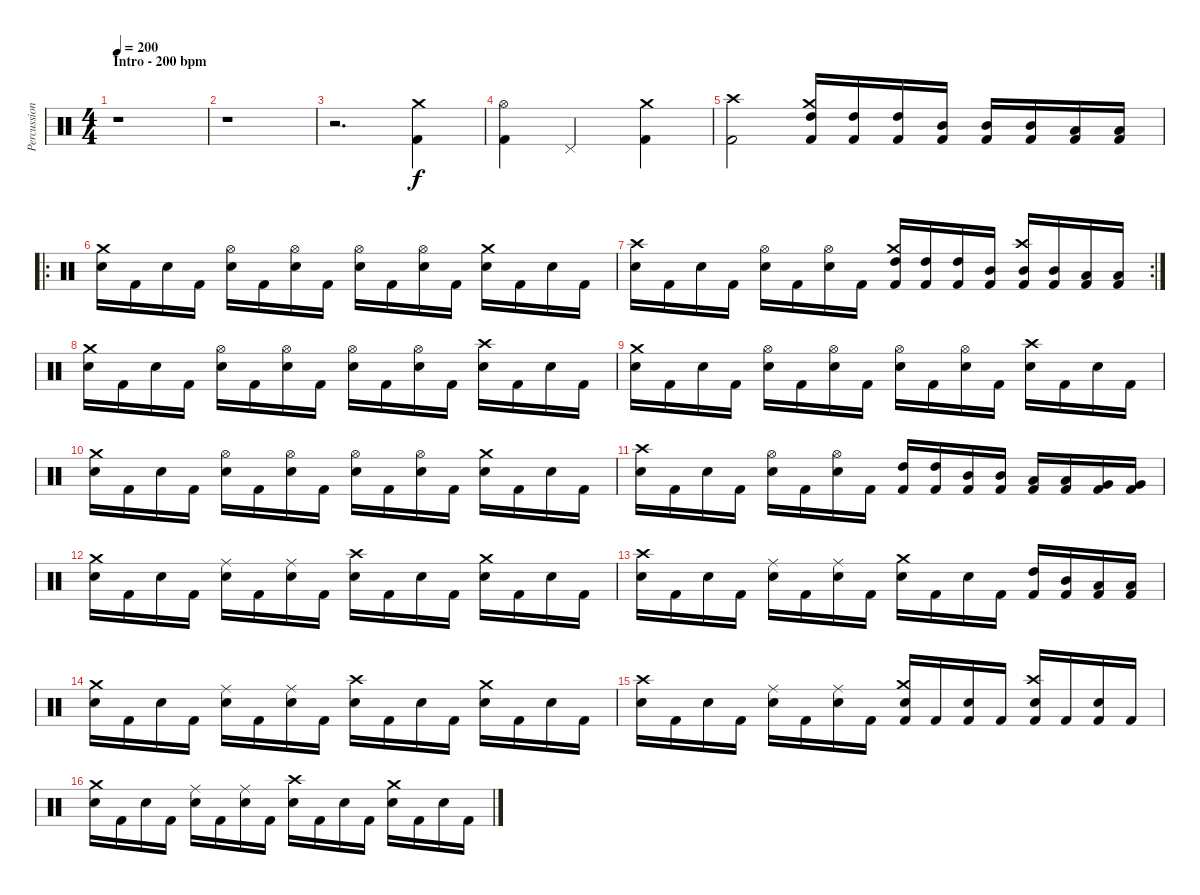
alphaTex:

\track ("Percussion" "Percussion") {instrument percussion}
\staff {score}
\articulation defaults
\ts (4 4)
\section ("" "Intro - 200 bpm")
\tempo 200
\clef neutral
\ks c
r.1{dy f} |
r.1 |
r.2{d} ("Kick (hit) 2" "Crash medium (hit)").4 |
("Kick (hit) 2" "Hi-Hat (open)").4 "Pedal Hi-Hat (hit)".2 ("Kick (hit) 2" "Crash medium (hit)").4 |
("Kick (hit) 2" "Crash high (hit)").2 ("Kick (hit) 2" "High Tom (hit)" "Crash medium (hit)").16 ("Kick (hit) 2" "High Tom (hit)").16 ("Kick (hit) 2" "High Tom (hit)").16 ("Kick (hit) 2" "Mid Tom (hit)").16 ("Kick (hit) 2" "Mid Tom (hit)").16 ("Kick (hit) 2" "Mid Tom (hit)").16 ("Kick (hit) 2" "Low Tom (hit)").16 ("Kick (hit) 2" "Low Tom (hit)").16 |
\ro
("Snare (hit) 2" "Crash medium (hit)").16 "Kick (hit) 2".16 "Snare (hit) 2".16 "Kick (hit) 2".16 ("Snare (hit) 2" "Hi-Hat (open)").16 "Kick (hit) 2".16 ("Snare (hit) 2" "Hi-Hat (open)").16 "Kick (hit) 2".16 ("Snare (hit) 2" "Hi-Hat (open)").16 "Kick (hit) 2".16 ("Snare (hit) 2" "Hi-Hat (open)").16 "Kick (hit) 2".16 ("Snare (hit) 2" "Crash medium (hit)").16 "Kick (hit) 2".16 "Snare (hit) 2".16 "Kick (hit) 2".16 |
\rc 2
("Snare (hit) 2" "Crash high (hit)").16 "Kick (hit) 2".16 "Snare (hit) 2".16 "Kick (hit) 2".16 ("Snare (hit) 2" "Hi-Hat (open)").16 "Kick (hit) 2".16 ("Snare (hit) 2" "Hi-Hat (open)").16 "Kick (hit) 2".16 ("Kick (hit) 2" "High Tom (hit)" "Crash medium (hit)").16 ("Kick (hit) 2" "High Tom (hit)").16 ("Kick (hit) 2" "High Tom (hit)").16 ("Kick (hit) 2" "Mid Tom (hit)").16 ("Kick (hit) 2" "Mid Tom (hit)" "Crash high (hit)").16 ("Kick (hit) 2" "Mid Tom (hit)").16 ("Kick (hit) 2" "Low Tom (hit)").16 ("Kick (hit) 2" "Low Tom (hit)").16 |
("Snare (hit) 2" "Crash medium (hit)").16 "Kick (hit) 2".16 "Snare (hit) 2".16 "Kick (hit) 2".16 ("Snare (hit) 2" "Hi-Hat (open)").16 "Kick (hit) 2".16 ("Snare (hit) 2" "Hi-Hat (open)").16 "Kick (hit) 2".16 ("Snare (hit) 2" "Hi-Hat (open)").16 "Kick (hit) 2".16 ("Snare (hit) 2" "Hi-Hat (open)").16 "Kick (hit) 2".16 ("Snare (hit) 2" "Crash high (hit)").16 "Kick (hit) 2".16 "Snare (hit) 2".16 "Kick (hit) 2".16 |
("Snare (hit) 2" "Crash medium (hit)").16 "Kick (hit) 2".16 "Snare (hit) 2".16 "Kick (hit) 2".16 ("Snare (hit) 2" "Hi-Hat (open)").16 "Kick (hit) 2".16 ("Snare (hit) 2" "Hi-Hat (open)").16 "Kick (hit) 2".16 ("Snare (hit) 2" "Hi-Hat (open)").16 "Kick (hit) 2".16 ("Snare (hit) 2" "Hi-Hat (open)").16 "Kick (hit) 2".16 ("Snare (hit) 2" "Crash high (hit)").16 "Kick (hit) 2".16 "Snare (hit) 2".16 "Kick (hit) 2".16 |
("Snare (hit) 2" "Crash medium (hit)").16 "Kick (hit) 2".16 "Snare (hit) 2".16 "Kick (hit) 2".16 ("Snare (hit) 2" "Hi-Hat (open)").16 "Kick (hit) 2".16 ("Snare (hit) 2" "Hi-Hat (open)").16 "Kick (hit) 2".16 ("Snare (hit) 2" "Hi-Hat (open)").16 "Kick (hit) 2".16 ("Snare (hit) 2" "Hi-Hat (open)").16 "Kick (hit) 2".16 ("Snare (hit) 2" "Crash medium (hit)").16 "Kick (hit) 2".16 "Snare (hit) 2".16 "Kick (hit) 2".16 |
("Snare (hit) 2" "Crash high (hit)").16 "Kick (hit) 2".16 "Snare (hit) 2".16 "Kick (hit) 2".16 ("Snare (hit) 2" "Hi-Hat (open)").16 "Kick (hit) 2".16 ("Snare (hit) 2" "Hi-Hat (open)").16 "Kick (hit) 2".16 ("Kick (hit) 2" "High Tom (hit)").16 ("Kick (hit) 2" "High Tom (hit)").16 ("Kick (hit) 2" "Mid Tom (hit)").16 ("Kick (hit) 2" "Mid Tom (hit)").16 ("Kick (hit) 2" "Low Tom (hit)").16 ("Kick (hit) 2" "Low Tom (hit)").16 ("Kick (hit) 2" "Very Low Tom (hit)").16 ("Kick (hit) 2" "Very Low Tom (hit)").16 |
("Snare (hit) 2" "Crash medium (hit)").16 "Kick (hit) 2".16 "Snare (hit) 2".16 "Kick (hit) 2".16 ("Snare (hit) 2" "Ride (middle)").16 "Kick (hit) 2".16 ("Snare (hit) 2" "Ride (middle)").16 "Kick (hit) 2".16 ("Snare (hit) 2" "Crash high (hit)").16 "Kick (hit) 2".16 "Snare (hit) 2".16 "Kick (hit) 2".16 ("Snare (hit) 2" "Crash medium (hit)").16 "Kick (hit) 2".16 "Snare (hit) 2".16 "Kick (hit) 2".16 |
("Snare (hit) 2" "Crash high (hit)").16 "Kick (hit) 2".16 "Snare (hit) 2".16 "Kick (hit) 2".16 ("Snare (hit) 2" "Ride (middle)").16 "Kick (hit) 2".16 ("Snare (hit) 2" "Ride (middle)").16 "Kick (hit) 2".16 ("Snare (hit) 2" "Crash medium (hit)").16 "Kick (hit) 2".16 "Snare (hit) 2".16 "Kick (hit) 2".16 ("Kick (hit) 2" "High Tom (hit)").16 ("Kick (hit) 2" "Mid Tom (hit)").16 ("Kick (hit) 2" "Low Tom (hit)").16 ("Kick (hit) 2" "Low Tom (hit)").16 |
("Snare (hit) 2" "Crash medium (hit)").16 "Kick (hit) 2".16 "Snare (hit) 2".16 "Kick (hit) 2".16 ("Snare (hit) 2" "Ride (middle)").16 "Kick (hit) 2".16 ("Snare (hit) 2" "Ride (middle)").16 "Kick (hit) 2".16 ("Snare (hit) 2" "Crash high (hit)").16 "Kick (hit) 2".16 "Snare (hit) 2".16 "Kick (hit) 2".16 ("Snare (hit) 2" "Crash medium (hit)").16 "Kick (hit) 2".16 "Snare (hit) 2".16 "Kick (hit) 2".16 |
("Snare (hit) 2" "Crash high (hit)").16 "Kick (hit) 2".16 "Snare (hit) 2".16 "Kick (hit) 2".16 ("Snare (hit) 2" "Ride (middle)").16 "Kick (hit) 2".16 ("Snare (hit) 2" "Ride (middle)").16 "Kick (hit) 2".16 ("Kick (hit) 2" "Snare (hit) 2" "Crash medium (hit)").16 "Kick (hit) 2".16 ("Kick (hit) 2" "Snare (hit) 2").16 "Kick (hit) 2".16 ("Kick (hit) 2" "Snare (hit) 2" "Crash high (hit)").16 "Kick (hit) 2".16 ("Kick (hit) 2" "Snare (hit) 2").16 "Kick (hit) 2".16 |
("Snare (hit) 2" "Crash medium (hit)").16 "Kick (hit) 2".16 "Snare (hit) 2".16 "Kick (hit) 2".16 ("Snare (hit) 2" "Ride (middle)").16 "Kick (hit) 2".16 ("Snare (hit) 2" "Ride (middle)").16 "Kick (hit) 2".16 ("Snare (hit) 2" "Crash high (hit)").16 "Kick (hit) 2".16 "Snare (hit) 2".16 "Kick (hit) 2".16 ("Snare (hit) 2" "Crash medium (hit)").16 "Kick (hit) 2".16 "Snare (hit) 2".16 "Kick (hit) 2".16
